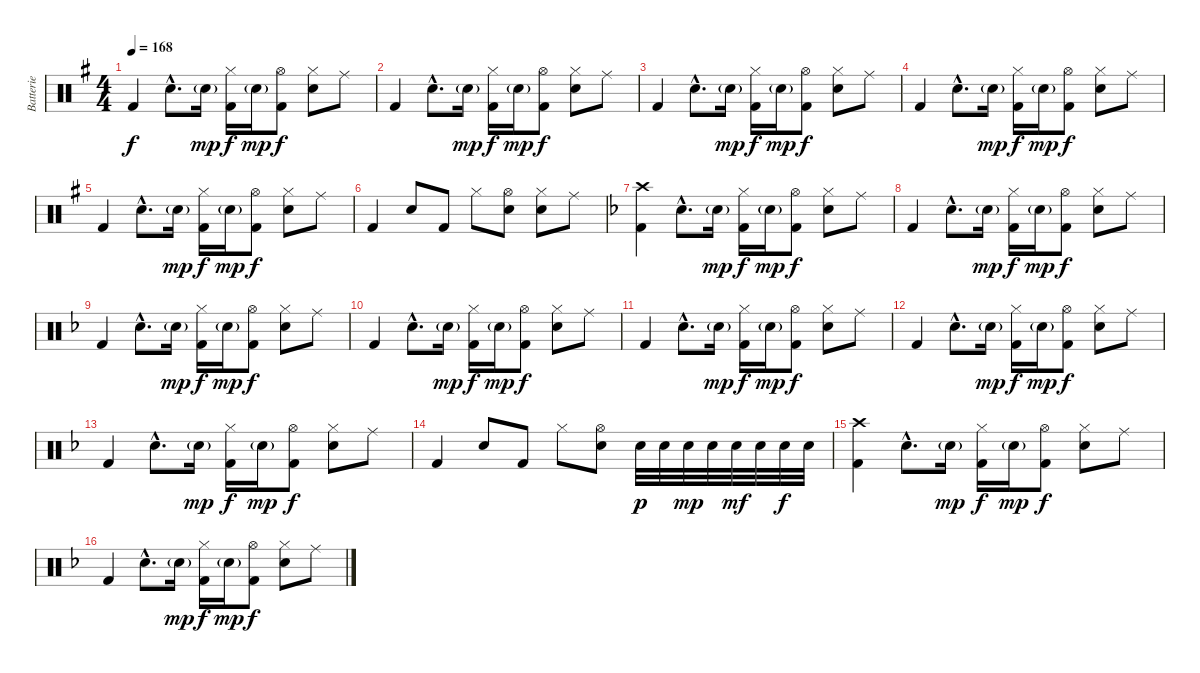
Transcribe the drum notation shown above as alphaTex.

\track ("Batterie" "Batterie") {instrument percussion}
\staff {score}
\articulation defaults
\ts (4 4)
\tempo 168
\clef neutral
\ks g "Kick (hit) 2".4{dy f} "Snare (hit) 2"{hac}.8{d} "Snare (hit) 2"{g}.16{dy mp}
("Hi-Hat (closed)" "Kick (hit) 2").16{dy f} "Snare (hit) 2"{g}.16{dy mp} ("Hi-Hat (open)" "Kick (hit) 2").8{dy f} ("Hi-Hat (closed)" "Snare (hit) 2").8 "Ride (middle)".8 |
"Kick (hit) 2".4 "Snare (hit) 2"{hac}.8{d} "Snare (hit) 2"{g}.16{dy mp} ("Hi-Hat (closed)" "Kick (hit) 2").16{dy f} "Snare (hit) 2"{g}.16{dy mp} ("Hi-Hat (open)" "Kick (hit) 2").8{dy f} ("Hi-Hat (closed)" "Snare (hit) 2").8 "Ride (middle)".8 |
"Kick (hit) 2".4 "Snare (hit) 2"{hac}.8{d} "Snare (hit) 2"{g}.16{dy mp} ("Hi-Hat (closed)" "Kick (hit) 2").16{dy f} "Snare (hit) 2"{g}.16{dy mp} ("Hi-Hat (open)" "Kick (hit) 2").8{dy f} ("Hi-Hat (closed)" "Snare (hit) 2").8 "Ride (middle)".8 |
"Kick (hit) 2".4 "Snare (hit) 2"{hac}.8{d} "Snare (hit) 2"{g}.16{dy mp} ("Hi-Hat (closed)" "Kick (hit) 2").16{dy f} "Snare (hit) 2"{g}.16{dy mp} ("Hi-Hat (open)" "Kick (hit) 2").8{dy f} ("Hi-Hat (closed)" "Snare (hit) 2").8 "Ride (middle)".8 |
"Kick (hit) 2".4 "Snare (hit) 2"{hac}.8{d} "Snare (hit) 2"{g}.16{dy mp} ("Hi-Hat (closed)" "Kick (hit) 2").16{dy f} "Snare (hit) 2"{g}.16{dy mp} ("Hi-Hat (open)" "Kick (hit) 2").8{dy f} ("Hi-Hat (closed)" "Snare (hit) 2").8 "Ride (middle)".8 |
"Kick (hit) 2".4 "Snare (hit) 2".8 "Kick (hit) 2".8 "Hi-Hat (closed)".8 ("Hi-Hat (open)" "Snare (hit) 2").8 ("Hi-Hat (closed)" "Snare (hit) 2").8 "Ride (middle)".8 |
\ks f
("Crash high (hit)" "Kick (hit) 2").4 "Snare (hit) 2"{hac}.8{d} "Snare (hit) 2"{g}.16{dy mp} ("Hi-Hat (closed)" "Kick (hit) 2").16{dy f} "Snare (hit) 2"{g}.16{dy mp} ("Hi-Hat (open)" "Kick (hit) 2").8{dy f} ("Hi-Hat (closed)" "Snare (hit) 2").8 "Ride (middle)".8 |
"Kick (hit) 2".4 "Snare (hit) 2"{hac}.8{d} "Snare (hit) 2"{g}.16{dy mp} ("Hi-Hat (closed)" "Kick (hit) 2").16{dy f} "Snare (hit) 2"{g}.16{dy mp} ("Hi-Hat (open)" "Kick (hit) 2").8{dy f} ("Hi-Hat (closed)" "Snare (hit) 2").8 "Ride (middle)".8 |
"Kick (hit) 2".4 "Snare (hit) 2"{hac}.8{d} "Snare (hit) 2"{g}.16{dy mp} ("Hi-Hat (closed)" "Kick (hit) 2").16{dy f} "Snare (hit) 2"{g}.16{dy mp} ("Hi-Hat (open)" "Kick (hit) 2").8{dy f} ("Hi-Hat (closed)" "Snare (hit) 2").8 "Ride (middle)".8 |
"Kick (hit) 2".4 "Snare (hit) 2"{hac}.8{d} "Snare (hit) 2"{g}.16{dy mp} ("Hi-Hat (closed)" "Kick (hit) 2").16{dy f} "Snare (hit) 2"{g}.16{dy mp} ("Hi-Hat (open)" "Kick (hit) 2").8{dy f} ("Hi-Hat (closed)" "Snare (hit) 2").8 "Ride (middle)".8 |
"Kick (hit) 2".4 "Snare (hit) 2"{hac}.8{d} "Snare (hit) 2"{g}.16{dy mp} ("Hi-Hat (closed)" "Kick (hit) 2").16{dy f} "Snare (hit) 2"{g}.16{dy mp} ("Hi-Hat (open)" "Kick (hit) 2").8{dy f} ("Hi-Hat (closed)" "Snare (hit) 2").8 "Ride (middle)".8 |
"Kick (hit) 2".4 "Snare (hit) 2"{hac}.8{d} "Snare (hit) 2"{g}.16{dy mp} ("Hi-Hat (closed)" "Kick (hit) 2").16{dy f} "Snare (hit) 2"{g}.16{dy mp} ("Hi-Hat (open)" "Kick (hit) 2").8{dy f} ("Hi-Hat (closed)" "Snare (hit) 2").8 "Ride (middle)".8 |
"Kick (hit) 2".4 "Snare (hit) 2"{hac}.8{d} "Snare (hit) 2"{g}.16{dy mp} ("Hi-Hat (closed)" "Kick (hit) 2").16{dy f} "Snare (hit) 2"{g}.16{dy mp} ("Hi-Hat (open)" "Kick (hit) 2").8{dy f} ("Hi-Hat (closed)" "Snare (hit) 2").8 "Ride (middle)".8 |
"Kick (hit) 2".4 "Snare (hit) 2".8 "Kick (hit) 2".8 "Hi-Hat (closed)".8 ("Hi-Hat (open)" "Snare (hit) 2").8 "Snare (hit) 2".32{dy p} "Snare (hit) 2".32 "Snare (hit) 2".32{dy mp} "Snare (hit) 2".32 "Snare (hit) 2".32{dy mf} "Snare (hit) 2".32 "Snare (hit) 2".32{dy f} "Snare (hit) 2".32 |
("Crash high (hit)" "Kick (hit) 2").4 "Snare (hit) 2"{hac}.8{d} "Snare (hit) 2"{g}.16{dy mp} ("Hi-Hat (closed)" "Kick (hit) 2").16{dy f} "Snare (hit) 2"{g}.16{dy mp} ("Hi-Hat (open)" "Kick (hit) 2").8{dy f} ("Hi-Hat (closed)" "Snare (hit) 2").8 "Ride (middle)".8 |
"Kick (hit) 2".4 "Snare (hit) 2"{hac}.8{d} "Snare (hit) 2"{g}.16{dy mp} ("Hi-Hat (closed)" "Kick (hit) 2").16{dy f} "Snare (hit) 2"{g}.16{dy mp} ("Hi-Hat (open)" "Kick (hit) 2").8{dy f} ("Hi-Hat (closed)" "Snare (hit) 2").8 "Ride (middle)".8
